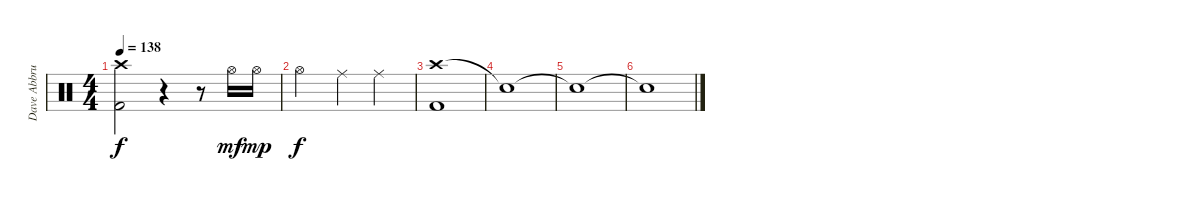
\track ("Dave Abbruze - Drums" "Dave Abbru") {instrument percussion}
\staff {score}
\articulation defaults
\ts (4 4)
\tempo 138
\clef neutral
\ks c
("Crash high (hit)" "Kick (hit) 2").2{dy f} r.4 r.8 "Hi-Hat (open)".16{dy mf} "Hi-Hat (open)".16{dy mp} |
"Hi-Hat (open)".2{dy f} "Ride (middle)".4 "Ride (middle)".4 |
("Crash high (hit)" "Kick (hit) 2").1 |
"Snare (hit)"{t}.1 |
"Snare (hit)"{t}.1 |
"Snare (hit)"{t}.1
